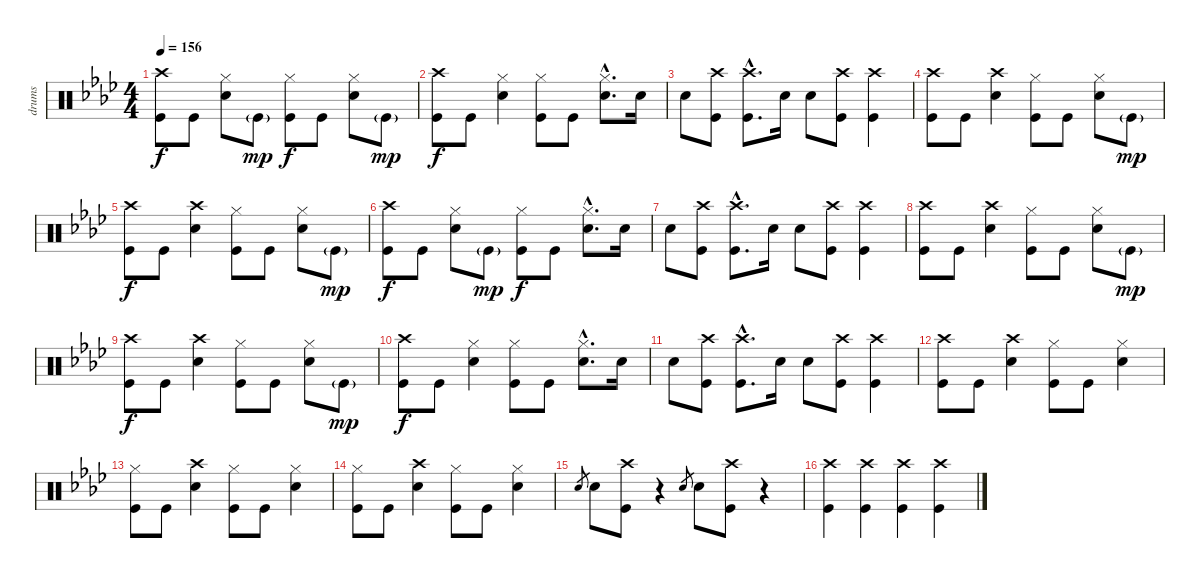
\track ("drums" "drums") {instrument percussion}
\staff {score}
\articulation defaults
\ts (4 4)
\tempo 156
\clef neutral
\ks ab
("Crash high (hit)" "Kick (hit)").8{dy f} "Kick (hit)".8 ("Hi-Hat (closed)" "Snare (hit) 2").8 "Kick (hit)"{g}.8{dy mp} ("Hi-Hat (closed)" "Kick (hit)").8{dy f} "Kick (hit)".8 ("Snare (hit) 2" "Hi-Hat (closed)").8 "Kick (hit)"{g}.8{dy mp} |
("Crash high (hit)" "Kick (hit)").8{dy f} "Kick (hit)".8 ("Hi-Hat (closed)" "Snare (hit) 2").4 ("Hi-Hat (closed)" "Kick (hit)").8 "Kick (hit)".8 ("Hi-Hat (closed)"{hac} "Snare (hit) 2"{hac}).8{d} "Snare (hit) 2".16 |
"Snare (hit) 2".8 ("Crash high (hit)" "Kick (hit)").8 ("Crash high (hit)"{hac} "Kick (hit)"{hac}).8{d} "Snare (hit) 2".16 "Snare (hit) 2".8 ("Crash high (hit)" "Kick (hit)").8 ("Crash high (hit)" "Kick (hit)").4 |
("Crash high (hit)" "Kick (hit)").8 "Kick (hit)".8 ("Crash high (hit)" "Snare (hit) 2").4 ("Kick (hit)" "Hi-Hat (closed)").8 "Kick (hit)".8 ("Hi-Hat (closed)" "Snare (hit) 2").8 "Kick (hit)"{g}.8{dy mp} |
("Crash high (hit)" "Kick (hit)").8{dy f} "Kick (hit)".8 ("Crash high (hit)" "Snare (hit) 2").4 ("Kick (hit)" "Hi-Hat (closed)").8 "Kick (hit)".8 ("Hi-Hat (closed)" "Snare (hit) 2").8 "Kick (hit)"{g}.8{dy mp} |
("Crash high (hit)" "Kick (hit)").8{dy f} "Kick (hit)".8 ("Snare (hit) 2" "Hi-Hat (closed)").8 "Kick (hit)"{g}.8{dy mp} ("Hi-Hat (closed)" "Kick (hit)").8{dy f} "Kick (hit)".8 ("Hi-Hat (closed)"{hac} "Snare (hit) 2"{hac}).8{d} "Snare (hit) 2".16 |
"Snare (hit) 2".8 ("Kick (hit)" "Crash high (hit)").8 ("Crash high (hit)"{hac} "Kick (hit)"{hac}).8{d} "Snare (hit) 2".16 "Snare (hit) 2".8 ("Crash high (hit)" "Kick (hit)").8 ("Kick (hit)" "Crash high (hit)").4 |
("Crash high (hit)" "Kick (hit)").8 "Kick (hit)".8 ("Crash high (hit)" "Snare (hit) 2").4 ("Kick (hit)" "Hi-Hat (closed)").8 "Kick (hit)".8 ("Hi-Hat (closed)" "Snare (hit) 2").8 "Kick (hit)"{g}.8{dy mp} |
("Crash high (hit)" "Kick (hit)").8{dy f} "Kick (hit)".8 ("Crash high (hit)" "Snare (hit) 2").4 ("Kick (hit)" "Hi-Hat (closed)").8 "Kick (hit)".8 ("Hi-Hat (closed)" "Snare (hit) 2").8 "Kick (hit)"{g}.8{dy mp} |
("Crash high (hit)" "Kick (hit)").8{dy f} "Kick (hit)".8 ("Hi-Hat (closed)" "Snare (hit) 2").4 ("Hi-Hat (closed)" "Kick (hit)").8 "Kick (hit)".8 ("Hi-Hat (closed)"{hac} "Snare (hit) 2"{hac}).8{d} "Snare (hit) 2".16 |
"Snare (hit) 2".8 ("Kick (hit)" "Crash high (hit)").8 ("Crash high (hit)"{hac} "Kick (hit)"{hac}).8{d} "Snare (hit) 2".16 "Snare (hit) 2".8 ("Crash high (hit)" "Kick (hit)").8 ("Kick (hit)" "Crash high (hit)").4 |
("Crash high (hit)" "Kick (hit)").8 "Kick (hit)".8 ("Crash high (hit)" "Snare (hit) 2").4 ("Kick (hit)" "Hi-Hat (closed)").8 "Kick (hit)".8 ("Hi-Hat (closed)" "Snare (hit) 2").4 |
("Hi-Hat (closed)" "Kick (hit)").8 "Kick (hit)".8 ("Crash high (hit)" "Snare (hit) 2").4 ("Kick (hit)" "Hi-Hat (closed)").8 "Kick (hit)".8 ("Hi-Hat (closed)" "Snare (hit) 2").4 |
("Hi-Hat (closed)" "Kick (hit)").8 "Kick (hit)".8 ("Crash high (hit)" "Snare (hit) 2").4 ("Kick (hit)" "Hi-Hat (closed)").8 "Kick (hit)".8 ("Hi-Hat (closed)" "Snare (hit) 2").4 |
"Snare (hit) 2".8{gr} "Snare (hit) 2".8 ("Crash high (hit)" "Kick (hit)").8 r.4 "Snare (hit) 2".8{gr} "Snare (hit) 2".8 ("Crash high (hit)" "Kick (hit)").8 r.4 |
("Crash high (hit)" "Kick (hit)").4 ("Crash high (hit)" "Kick (hit)").4 ("Crash high (hit)" "Kick (hit)").4 ("Crash high (hit)" "Kick (hit)").4
